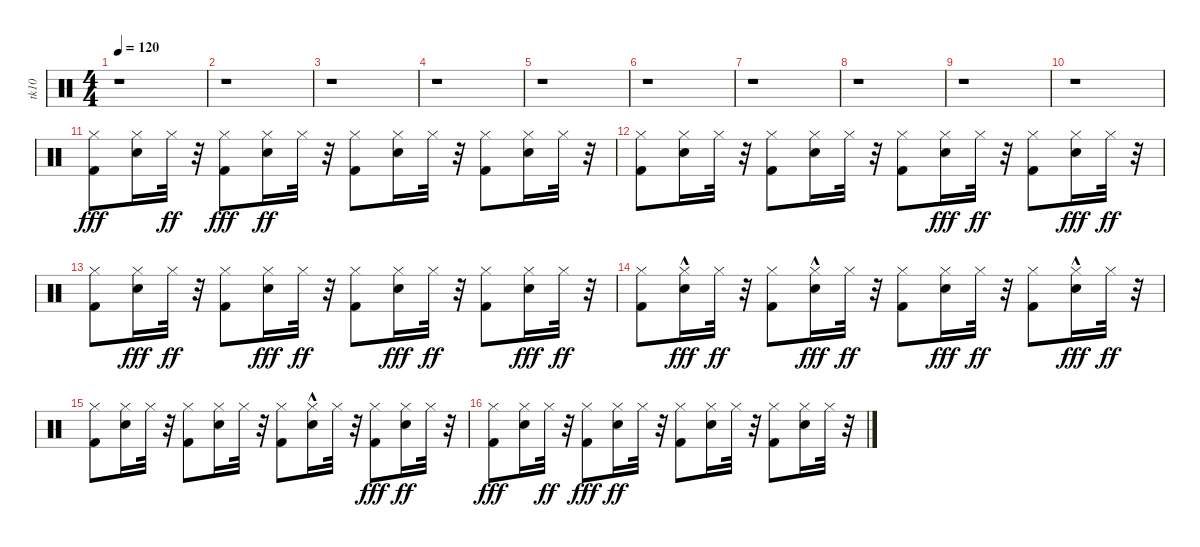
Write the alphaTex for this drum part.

\track ("tk10" "tk10") {instrument percussion}
\staff {score}
\articulation defaults
\ts (4 4)
\tempo 120
\clef neutral
\ks c
r.1{dy fff} |
r.1 |
r.1 |
r.1 |
r.1 |
r.1 |
r.1 |
r.1 |
r.1 |
r.1 |
("Hi-Hat (closed)" "Kick (hit) 2").8{balance 8} ("Hi-Hat (closed)" "Snare (hit) 2").16 "Hi-Hat (closed)".32{dy ff} r.32 ("Hi-Hat (closed)" "Kick (hit) 2").8{dy fff} ("Hi-Hat (closed)" "Snare (hit) 2").16{dy ff} "Hi-Hat (closed)".32 r.32 ("Hi-Hat (closed)" "Kick (hit) 2").8 ("Hi-Hat (closed)" "Snare (hit) 2").16 "Hi-Hat (closed)".32 r.32 ("Hi-Hat (closed)" "Kick (hit) 2").8 ("Hi-Hat (closed)" "Snare (hit) 2").16 "Hi-Hat (closed)".32 r.32 |
("Hi-Hat (closed)" "Kick (hit) 2").8 ("Hi-Hat (closed)" "Snare (hit) 2").16 "Hi-Hat (closed)".32 r.32 ("Hi-Hat (closed)" "Kick (hit) 2").8 ("Hi-Hat (closed)" "Snare (hit) 2").16 "Hi-Hat (closed)".32 r.32 ("Hi-Hat (closed)" "Kick (hit) 2").8 ("Hi-Hat (closed)" "Snare (hit) 2").16{dy fff} "Hi-Hat (closed)".32{dy ff} r.32 ("Hi-Hat (closed)" "Kick (hit) 2").8 ("Hi-Hat (closed)" "Snare (hit) 2").16{dy fff} "Hi-Hat (closed)".32{dy ff} r.32 |
("Hi-Hat (closed)" "Kick (hit) 2").8 ("Hi-Hat (closed)" "Snare (hit) 2").16{dy fff} "Hi-Hat (closed)".32{dy ff} r.32 ("Hi-Hat (closed)" "Kick (hit) 2").8 ("Hi-Hat (closed)" "Snare (hit) 2").16{dy fff} "Hi-Hat (closed)".32{dy ff} r.32 ("Hi-Hat (closed)" "Kick (hit) 2").8 ("Hi-Hat (closed)" "Snare (hit) 2").16{dy fff} "Hi-Hat (closed)".32{dy ff} r.32 ("Hi-Hat (closed)" "Kick (hit) 2").8 ("Hi-Hat (closed)" "Snare (hit) 2").16{dy fff} "Hi-Hat (closed)".32{dy ff} r.32 |
("Hi-Hat (closed)" "Kick (hit) 2").8 ("Hi-Hat (closed)" "Snare (hit) 2"{hac}).16{dy fff} "Hi-Hat (closed)".32{dy ff} r.32 ("Hi-Hat (closed)" "Kick (hit) 2").8 ("Hi-Hat (closed)" "Snare (hit) 2"{hac}).16{dy fff} "Hi-Hat (closed)".32{dy ff} r.32 ("Hi-Hat (closed)" "Kick (hit) 2").8 ("Hi-Hat (closed)" "Snare (hit) 2").16{dy fff} "Hi-Hat (closed)".32{dy ff} r.32 ("Hi-Hat (closed)" "Kick (hit) 2").8 ("Hi-Hat (closed)" "Snare (hit) 2"{hac}).16{dy fff} "Hi-Hat (closed)".32{dy ff} r.32 |
("Hi-Hat (closed)" "Kick (hit) 2").8 ("Hi-Hat (closed)" "Snare (hit) 2").16 "Hi-Hat (closed)".32 r.32 ("Hi-Hat (closed)" "Kick (hit) 2").8 ("Hi-Hat (closed)" "Snare (hit) 2").16 "Hi-Hat (closed)".32 r.32 ("Hi-Hat (closed)" "Kick (hit) 2").8 ("Hi-Hat (closed)" "Snare (hit) 2"{hac}).16 "Hi-Hat (closed)".32 r.32 ("Hi-Hat (closed)" "Kick (hit) 2").8{dy fff} ("Hi-Hat (closed)" "Snare (hit) 2").16{dy ff} "Hi-Hat (closed)".32 r.32 |
("Hi-Hat (closed)" "Kick (hit) 2").8{dy fff} ("Hi-Hat (closed)" "Snare (hit) 2").16 "Hi-Hat (closed)".32{dy ff} r.32 ("Hi-Hat (closed)" "Kick (hit) 2").8{dy fff} ("Hi-Hat (closed)" "Snare (hit) 2").16{dy ff} "Hi-Hat (closed)".32 r.32 ("Hi-Hat (closed)" "Kick (hit) 2").8 ("Hi-Hat (closed)" "Snare (hit) 2").16 "Hi-Hat (closed)".32 r.32 ("Hi-Hat (closed)" "Kick (hit) 2").8 ("Hi-Hat (closed)" "Snare (hit) 2").16 "Hi-Hat (closed)".32 r.32
